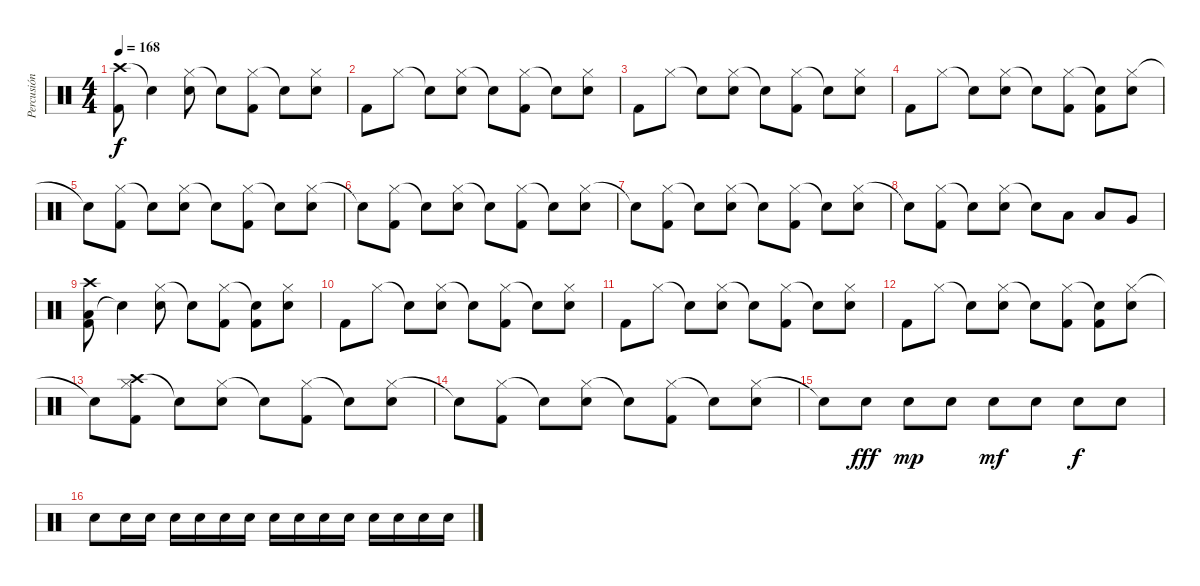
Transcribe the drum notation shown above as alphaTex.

\track ("Percusión" "Percusión") {instrument percussion}
\staff {score}
\articulation defaults
\ts (4 4)
\tempo 168
\clef neutral
\ks c
("Crash high (hit)" "Kick (hit) 2").8{dy f} "Snare (hit)"{t}.4 ("Hi-Hat (closed)" "Snare (hit) 2").8 "Snare (hit)"{t}.8 ("Hi-Hat (closed)" "Kick (hit) 2").8 "Snare (hit)"{t}.8 ("Hi-Hat (closed)" "Snare (hit) 2").8 |
"Kick (hit) 2".8 "Hi-Hat (closed)".8 "Snare (hit)"{t}.8 ("Hi-Hat (closed)" "Snare (hit) 2").8 "Snare (hit)"{t}.8 ("Hi-Hat (closed)" "Kick (hit) 2").8 "Snare (hit)"{t}.8 ("Hi-Hat (closed)" "Snare (hit) 2").8 |
"Kick (hit) 2".8 "Hi-Hat (closed)".8 "Snare (hit)"{t}.8 ("Hi-Hat (closed)" "Snare (hit) 2").8 "Snare (hit)"{t}.8 ("Hi-Hat (closed)" "Kick (hit) 2").8 "Snare (hit)"{t}.8 ("Hi-Hat (closed)" "Snare (hit) 2").8 |
"Kick (hit) 2".8 "Hi-Hat (closed)".8 "Snare (hit)"{t}.8 ("Hi-Hat (closed)" "Snare (hit) 2").8 "Snare (hit)"{t}.8 ("Hi-Hat (closed)" "Kick (hit) 2").8 ("Snare (hit)"{t} "Kick (hit) 2").8 ("Hi-Hat (closed)" "Snare (hit) 2").8 |
"Snare (hit)"{t}.8 ("Hi-Hat (closed)" "Kick (hit) 2").8 "Snare (hit)"{t}.8 ("Hi-Hat (closed)" "Snare (hit) 2").8 "Snare (hit)"{t}.8 ("Hi-Hat (closed)" "Kick (hit) 2").8 "Snare (hit)"{t}.8 ("Hi-Hat (closed)" "Snare (hit) 2").8 |
"Snare (hit)"{t}.8 ("Hi-Hat (closed)" "Kick (hit) 2").8 "Snare (hit)"{t}.8 ("Hi-Hat (closed)" "Snare (hit) 2").8 "Snare (hit)"{t}.8 ("Hi-Hat (closed)" "Kick (hit) 2").8 "Snare (hit)"{t}.8 ("Hi-Hat (closed)" "Snare (hit) 2").8 |
"Snare (hit)"{t}.8 ("Hi-Hat (closed)" "Kick (hit) 2").8 "Snare (hit)"{t}.8 ("Hi-Hat (closed)" "Snare (hit) 2").8 "Snare (hit)"{t}.8 ("Hi-Hat (closed)" "Kick (hit) 2").8 "Snare (hit)"{t}.8 ("Hi-Hat (closed)" "Snare (hit) 2").8 |
"Snare (hit)"{t}.8 ("Hi-Hat (closed)" "Kick (hit) 2").8 "Snare (hit)"{t}.8 ("Hi-Hat (closed)" "Snare (hit) 2").8 "Snare (hit)"{t}.8 "Low Tom (hit)".8 "Low Tom (hit)".8 "Very Low Tom (hit)".8 |
("Low Floor Tom (hit)" "Crash high (hit)" "Kick (hit) 2").8 "Snare (hit)"{t}.4 ("Hi-Hat (closed)" "Snare (hit) 2").8 "Snare (hit)"{t}.8 ("Hi-Hat (closed)" "Kick (hit) 2").8 ("Snare (hit)"{t} "Kick (hit) 2").8 ("Hi-Hat (closed)" "Snare (hit) 2").8 |
"Kick (hit) 2".8 "Hi-Hat (closed)".8 "Snare (hit)"{t}.8 ("Hi-Hat (closed)" "Snare (hit) 2").8 "Snare (hit)"{t}.8 ("Hi-Hat (closed)" "Kick (hit) 2").8 "Snare (hit)"{t}.8 ("Hi-Hat (closed)" "Snare (hit) 2").8 |
"Kick (hit) 2".8 "Hi-Hat (closed)".8 "Snare (hit)"{t}.8 ("Hi-Hat (closed)" "Snare (hit) 2").8 "Snare (hit)"{t}.8 ("Hi-Hat (closed)" "Kick (hit) 2").8 "Snare (hit)"{t}.8 ("Hi-Hat (closed)" "Snare (hit) 2").8 |
"Kick (hit) 2".8 "Hi-Hat (closed)".8 "Snare (hit)"{t}.8 ("Hi-Hat (closed)" "Snare (hit) 2").8 "Snare (hit)"{t}.8 ("Hi-Hat (closed)" "Kick (hit) 2").8 ("Snare (hit)"{t} "Kick (hit) 2").8 ("Hi-Hat (closed)" "Snare (hit) 2").8 |
"Snare (hit)"{t}.8 ("Crash high (hit)" "Hi-Hat (closed)" "Kick (hit) 2").8 "Snare (hit)"{t}.8 ("Hi-Hat (closed)" "Snare (hit) 2").8 "Snare (hit)"{t}.8 ("Hi-Hat (closed)" "Kick (hit) 2").8 "Snare (hit)"{t}.8 ("Hi-Hat (closed)" "Snare (hit) 2").8 |
"Snare (hit)"{t}.8 ("Hi-Hat (closed)" "Kick (hit) 2").8 "Snare (hit)"{t}.8 ("Hi-Hat (closed)" "Snare (hit) 2").8 "Snare (hit)"{t}.8 ("Hi-Hat (closed)" "Kick (hit) 2").8 "Snare (hit)"{t}.8 ("Hi-Hat (closed)" "Snare (hit) 2").8 |
"Snare (hit)"{t}.8 "Snare (hit) 2".8{dy fff} "Snare (hit) 2".8{dy mp} "Snare (hit) 2".8 "Snare (hit) 2".8{dy mf} "Snare (hit) 2".8 "Snare (hit) 2".8{dy f} "Snare (hit) 2".8 |
"Snare (hit) 2".8 "Snare (hit) 2".16 "Snare (hit) 2".16 "Snare (hit) 2".16 "Snare (hit) 2".16 "Snare (hit) 2".16 "Snare (hit) 2".16 "Snare (hit) 2".16 "Snare (hit) 2".16 "Snare (hit) 2".16 "Snare (hit) 2".16 "Snare (hit) 2".16 "Snare (hit) 2".16 "Snare (hit) 2".16 "Snare (hit) 2".16
